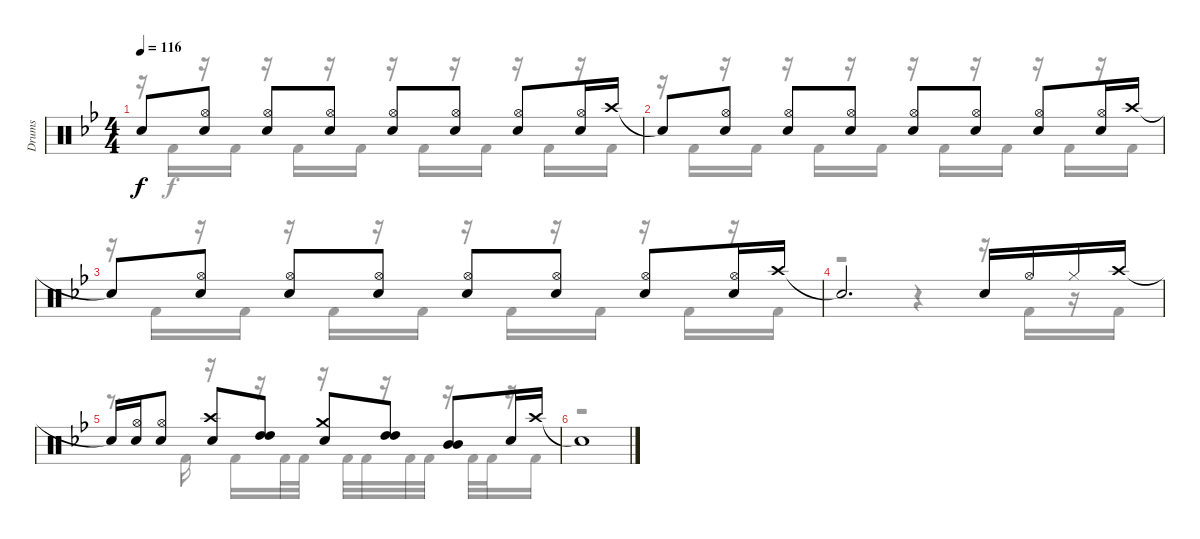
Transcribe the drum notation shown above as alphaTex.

\track ("Drums" "Drums") {instrument percussion}
\staff {score}
\articulation defaults
\voice
\ts (4 4)
\tempo 116
\clef neutral
\ks bb "Snare (hit)"{t}.8{dy f}
("Hi-Hat (open)" "Snare (hit) 2").8 ("Hi-Hat (open)" "Snare (hit) 2").8 ("Hi-Hat (open)" "Snare (hit) 2").8 ("Hi-Hat (open)" "Snare (hit) 2").8 ("Hi-Hat (open)" "Snare (hit) 2").8 ("Hi-Hat (open)" "Snare (hit) 2").8 ("Hi-Hat (open)" "Snare (hit) 2").16 "Crash high (hit)".16 |
"Snare (hit)"{t}.8 ("Hi-Hat (open)" "Snare (hit) 2").8 ("Hi-Hat (open)" "Snare (hit) 2").8 ("Hi-Hat (open)" "Snare (hit) 2").8 ("Hi-Hat (open)" "Snare (hit) 2").8 ("Hi-Hat (open)" "Snare (hit) 2").8 ("Hi-Hat (open)" "Snare (hit) 2").8 ("Hi-Hat (open)" "Snare (hit) 2").16 "Crash high (hit)".16 |
"Snare (hit)"{t}.8 ("Hi-Hat (open)" "Snare (hit) 2").8 ("Hi-Hat (open)" "Snare (hit) 2").8 ("Hi-Hat (open)" "Snare (hit) 2").8 ("Hi-Hat (open)" "Snare (hit) 2").8 ("Hi-Hat (open)" "Snare (hit) 2").8 ("Hi-Hat (open)" "Snare (hit) 2").8 ("Hi-Hat (open)" "Snare (hit) 2").16 "Crash high (hit)".16 |
"Snare (hit)"{t}.2{d} "Snare (hit) 2".16 "Hi-Hat (open)".16 "Hi-Hat (closed)".16 "Crash high (hit)".16 |
"Snare (hit)"{t}.16 ("Hi-Hat (open)" "Snare (hit) 2").16 ("Hi-Hat (open)" "Snare (hit) 2").8 ("Crash high (hit)" "Snare (hit) 2").8 ("High Tom (hit)" "High Tom (hit)").8 ("Crash medium (hit)" "Snare (hit) 2").8 ("High Tom (hit)" "High Tom (hit)").8 ("Mid Tom (hit)" "Mid Tom (hit)").8 "Snare (hit) 2".16 "Crash high (hit)".16 |
"Snare (hit)"{t}.1
\voice
\clef neutral
\ottava regular
\simile none
\ks bb
r.16{dy f} "Kick (hit) 2".16 r.16 "Kick (hit) 2".16 r.16 "Kick (hit) 2".16 r.16 "Kick (hit) 2".16 r.16 "Kick (hit) 2".16 r.16 "Kick (hit) 2".16 r.16 "Kick (hit) 2".16 r.16 "Kick (hit) 2".16 |
r.16 "Kick (hit) 2".16 r.16 "Kick (hit) 2".16 r.16 "Kick (hit) 2".16 r.16 "Kick (hit) 2".16 r.16 "Kick (hit) 2".16 r.16 "Kick (hit) 2".16 r.16 "Kick (hit) 2".16 r.16 "Kick (hit) 2".16 |
r.16 "Kick (hit) 2".16 r.16 "Kick (hit) 2".16 r.16 "Kick (hit) 2".16 r.16 "Kick (hit) 2".16 r.16 "Kick (hit) 2".16 r.16 "Kick (hit) 2".16 r.16 "Kick (hit) 2".16 r.16 "Kick (hit) 2".16 |
r.2 r.4 r.16 "Kick (hit) 2".16 r.16 "Kick (hit) 2".16 |
r.8{d} "Kick (hit) 2".16 r.16 "Kick (hit) 2".16 r.16 "Kick (hit) 2".32 "Kick (hit) 2".32 r.16 "Kick (hit) 2".32 "Kick (hit) 2".32 r.16 "Kick (hit) 2".32 "Kick (hit) 2".32 r.16 "Kick (hit) 2".32 "Kick (hit) 2".32 r.16 "Kick (hit) 2".16 |
r.1
